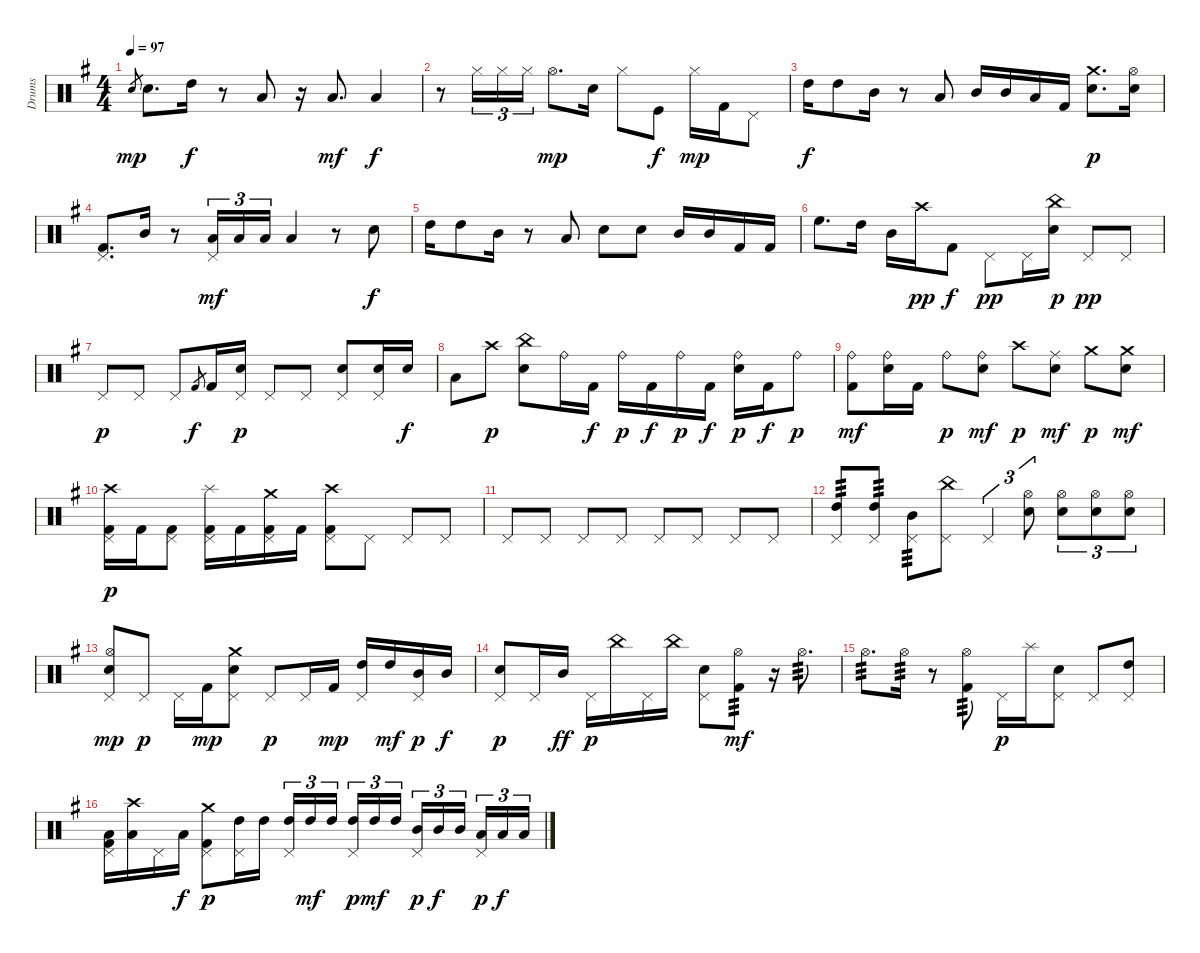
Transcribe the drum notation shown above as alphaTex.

\track ("Drums" "Drums") {instrument percussion}
\staff {score}
\articulation defaults
\ts (4 4)
\tempo 97
\clef neutral
\ks g "Electric Snare (hit)".8{gr dy mp} "Electric Snare (hit)".8{d} "High Tom (hit)".16{dy f}
r.8 "Low Tom (hit)".8 r.16 "Low Tom (hit)".8{d dy mf} "Low Tom (hit)".4{dy f} |
r.8 "Hi-Hat (closed)".16{tu (3 2)} "Hi-Hat (closed)".16{tu (3 2)} "Hi-Hat (closed)".16{tu (3 2)} "Hi-Hat (open)".8{d dy mp} "Electric Snare (hit)".16 "Hi-Hat (closed)".8 "Kick (hit)".8{dy f} "Hi-Hat (closed)".16{dy mp} "Kick (hit) 2".16 "Pedal Hi-Hat (hit)".8 |
"High Tom (hit)".16{dy f} "High Tom (hit)".8 "Mid Tom (hit)".16 r.8 "Low Tom (hit)".8 "Mid Tom (hit)".16 "Mid Tom (hit)".16 "Low Tom (hit)".16 "Kick (hit) 2".16 ("Electric Snare (hit)" "Crash medium (hit)").8{d dy p} ("Electric Snare (hit)" "Hi-Hat (open)").16 |
("Kick (hit) 2" "Pedal Hi-Hat (hit)").8{d} "Mid Tom (hit)".16 r.8 ("Low Tom (hit)" "Pedal Hi-Hat (hit)").16{tu (3 2) dy mf} "Low Tom (hit)".16{tu (3 2)} "Low Tom (hit)".16{tu (3 2)} "Low Tom (hit)".4 r.8 "Electric Snare (hit)".8{dy f} |
"High Tom (hit)".16 "High Tom (hit)".8 "Mid Tom (hit)".16 r.8 "Low Tom (hit)".8 "Electric Snare (hit)".8 "Electric Snare (hit)".8 "Mid Tom (hit)".16 "Mid Tom (hit)".16 "Kick (hit) 2".16 "Kick (hit) 2".16 |
"High Floor Tom (hit)".8{d} "High Tom (hit)".16 "Mid Tom (hit)".16 "Crash high (hit)".16{dy pp} "Kick (hit) 2".8{dy f} "Pedal Hi-Hat (hit)".8{dy pp} "Pedal Hi-Hat (hit)".16 ("Electric Snare (hit)" "China (hit)").16{dy p} "Pedal Hi-Hat (hit)".8{dy pp} "Pedal Hi-Hat (hit)".8 |
"Pedal Hi-Hat (hit)".8{dy p} "Pedal Hi-Hat (hit)".8 "Pedal Hi-Hat (hit)".8 "Kick (hit) 2".8{gr dy f} "Kick (hit) 2".16 ("Pedal Hi-Hat (hit)" "Electric Snare (hit)").16{dy p} "Pedal Hi-Hat (hit)".8 "Pedal Hi-Hat (hit)".8 ("Pedal Hi-Hat (hit)" "Electric Snare (hit)").8 ("Pedal Hi-Hat (hit)" "Electric Snare (hit)").16 "Electric Snare (hit)".16{dy f} |
"Low Tom (hit)".8 "Crash high (hit)".8{dy p} ("China (hit)" "Electric Snare (hit)").8 "Ride (bell)".16 "Kick (hit) 2".16{dy f} "Ride (bell)".16{dy p} "Kick (hit) 2".16{dy f} "Ride (bell)".16{dy p} "Kick (hit) 2".16{dy f} ("Ride (bell)" "Electric Snare (hit)").16{dy p} "Kick (hit) 2".16{dy f} "Ride (bell)".8{dy p} |
("Ride (bell)" "Kick (hit) 2").8{dy mf} ("Ride (bell)" "Electric Snare (hit)").16 "Kick (hit) 2".16 "Ride (bell)".8{dy p} ("Ride (bell)" "Electric Snare (hit)").8{dy mf} "Crash high (hit)".8{dy p} ("Ride (middle)" "Electric Snare (hit)").8{dy mf} "Crash medium (hit)".8{dy p} ("Crash medium (hit)" "Electric Snare (hit)").8{dy mf} |
("Pedal Hi-Hat (hit)" "Kick (hit) 2" "Crash high (hit)").16{dy p} "Kick (hit) 2".16 ("Pedal Hi-Hat (hit)" "Kick (hit) 2").8 ("Pedal Hi-Hat (hit)" "Kick (hit) 2" "Splash (hit)").16 "Kick (hit) 2".16 ("Pedal Hi-Hat (hit)" "Kick (hit) 2" "Crash medium (hit)").16 "Kick (hit) 2".16 ("Pedal Hi-Hat (hit)" "Kick (hit) 2" "Crash high (hit)").8 "Pedal Hi-Hat (hit)".8 "Pedal Hi-Hat (hit)".8 "Pedal Hi-Hat (hit)".8 |
"Pedal Hi-Hat (hit)".8 "Pedal Hi-Hat (hit)".8 "Pedal Hi-Hat (hit)".8 "Pedal Hi-Hat (hit)".8 "Pedal Hi-Hat (hit)".8 "Pedal Hi-Hat (hit)".8 "Pedal Hi-Hat (hit)".8 "Pedal Hi-Hat (hit)".8 |
("Pedal Hi-Hat (hit)" "High Tom (hit)").8{tp 3} ("Pedal Hi-Hat (hit)" "High Tom (hit)").8{tp 3} ("Pedal Hi-Hat (hit)" "Mid Tom (hit)").8{tp 3} ("Pedal Hi-Hat (hit)" "China (hit)").8 "Pedal Hi-Hat (hit)".4{tu (3 2)} ("Electric Snare (hit)" "Hi-Hat (open)").8{tu (3 2)} ("Electric Snare (hit)" "Hi-Hat (open)").8{tu (3 2)} ("Electric Snare (hit)" "Hi-Hat (open)").8{tu (3 2)} ("Hi-Hat (open)" "Electric Snare (hit)").8{tu (3 2)} |
("Pedal Hi-Hat (hit)" "Electric Snare (hit)" "Hi-Hat (open)").8{dy mp} "Pedal Hi-Hat (hit)".8{dy p} "Pedal Hi-Hat (hit)".16 "Kick (hit) 2".16{dy mp} ("Pedal Hi-Hat (hit)" "Electric Snare (hit)" "Crash medium (hit)").8 "Pedal Hi-Hat (hit)".8{dy p} "Pedal Hi-Hat (hit)".16 "Kick (hit) 2".16{dy mp} ("Pedal Hi-Hat (hit)" "High Tom (hit)").16 "High Tom (hit)".16{dy mf} ("Pedal Hi-Hat (hit)" "Mid Tom (hit)").16{dy p} "Mid Tom (hit)".16{dy f} |
("Pedal Hi-Hat (hit)" "Electric Snare (hit)").8{dy p} "Pedal Hi-Hat (hit)".16 "Mid Tom (hit)".16{dy ff} "Pedal Hi-Hat (hit)".16{dy p} "China (hit)".16 "Pedal Hi-Hat (hit)".16 "China (hit)".16 ("Pedal Hi-Hat (hit)" "Electric Snare (hit)").8 ("Hi-Hat (open)" "Kick (hit) 2").8{tp 3 dy mf} r.16 "Hi-Hat (open)".8{d tp 3} |
"Hi-Hat (open)".8{d tp 3} "Hi-Hat (open)".16{tp 3} r.8 ("Kick (hit) 2" "Hi-Hat (open)").8{tp 3} "Pedal Hi-Hat (hit)".16{dy p} "Splash (hit)".16 ("Pedal Hi-Hat (hit)" "Electric Snare (hit)").8 "Pedal Hi-Hat (hit)".8 ("Pedal Hi-Hat (hit)" "High Tom (hit)").8 |
("Kick (hit) 2" "Pedal Hi-Hat (hit)" "Low Tom (hit)").16 ("Low Tom (hit)" "Crash high (hit)").16 "Pedal Hi-Hat (hit)".16 "Low Tom (hit)".16{dy f} ("Kick (hit) 2" "Crash medium (hit)" "Pedal Hi-Hat (hit)").8{dy p} ("High Tom (hit)" "Pedal Hi-Hat (hit)").16 "High Tom (hit)".16 ("High Tom (hit)" "Pedal Hi-Hat (hit)").16{tu (3 2)} "High Tom (hit)".16{tu (3 2) dy mf} "High Tom (hit)".16{tu (3 2) beam splitsecondary} ("High Tom (hit)" "Pedal Hi-Hat (hit)").16{tu (3 2) dy p} "High Tom (hit)".16{tu (3 2) dy mf} "High Tom (hit)".16{tu (3 2)} ("Mid Tom (hit)" "Pedal Hi-Hat (hit)").16{tu (3 2) dy p} "Mid Tom (hit)".16{tu (3 2) dy f} "Mid Tom (hit)".16{tu (3 2) beam splitsecondary} ("Low Tom (hit)" "Pedal Hi-Hat (hit)").16{tu (3 2) dy p} "Low Tom (hit)".16{tu (3 2) dy f} "Low Tom (hit)".16{tu (3 2)}
